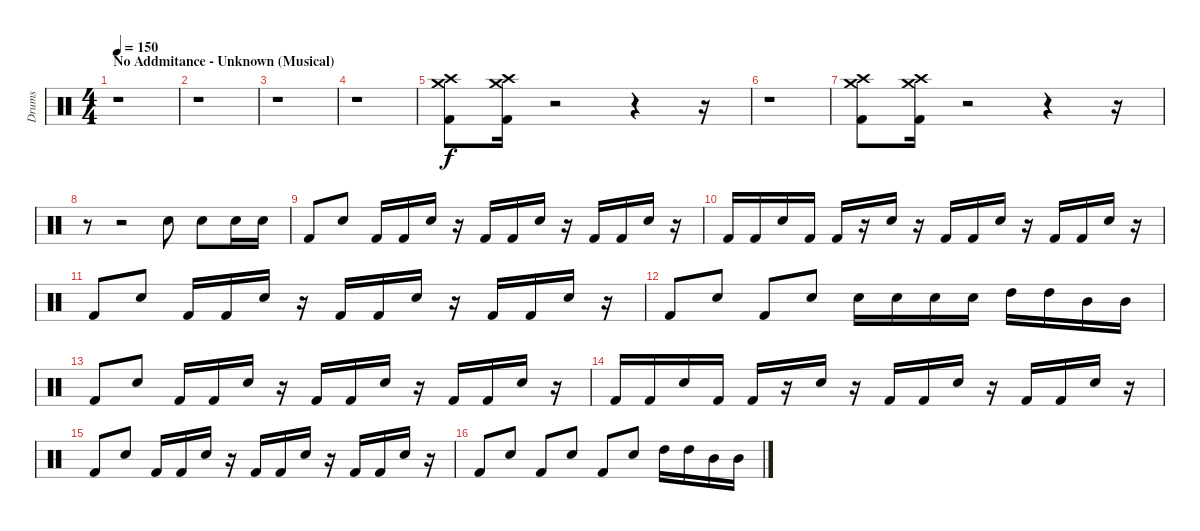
\track ("Drums" "Drums") {instrument percussion}
\staff {score}
\articulation defaults
\ts (4 4)
\section ("" "No Addmitance - Unknown (Musical)")
\tempo 150
\clef neutral
\ks c
r.1{dy f} |
r.1 |
r.1 |
r.1 |
("Crash medium (hit)" "Crash high (hit)" "Kick (hit) 2").8 ("Crash medium (hit)" "Crash high (hit)" "Kick (hit) 2").16 r.2 r.4 r.16 |
r.1 |
("Crash medium (hit)" "Crash high (hit)" "Kick (hit) 2").8 ("Crash medium (hit)" "Crash high (hit)" "Kick (hit) 2").16 r.2 r.4 r.16 |
r.8 r.2 "Snare (hit) 2".8 "Snare (hit) 2".8 "Snare (hit) 2".16 "Snare (hit) 2".16 |
"Kick (hit) 2".8 "Snare (hit) 2".8 "Kick (hit) 2".16 "Kick (hit) 2".16 "Snare (hit) 2".16 r.16 "Kick (hit) 2".16 "Kick (hit) 2".16 "Snare (hit) 2".16 r.16 "Kick (hit) 2".16 "Kick (hit) 2".16 "Snare (hit) 2".16 r.16 |
"Kick (hit) 2".16 "Kick (hit) 2".16 "Snare (hit) 2".16 "Kick (hit) 2".16 "Kick (hit) 2".16 r.16 "Snare (hit) 2".16 r.16 "Kick (hit) 2".16 "Kick (hit) 2".16 "Snare (hit) 2".16 r.16 "Kick (hit) 2".16 "Kick (hit) 2".16 "Snare (hit) 2".16 r.16 |
"Kick (hit) 2".8 "Snare (hit) 2".8 "Kick (hit) 2".16 "Kick (hit) 2".16 "Snare (hit) 2".16 r.16 "Kick (hit) 2".16 "Kick (hit) 2".16 "Snare (hit) 2".16 r.16 "Kick (hit) 2".16 "Kick (hit) 2".16 "Snare (hit) 2".16 r.16 |
"Kick (hit) 2".8 "Snare (hit) 2".8 "Kick (hit) 2".8 "Snare (hit) 2".8 "Snare (hit) 2".16 "Snare (hit) 2".16 "Snare (hit) 2".16 "Snare (hit) 2".16 "High Tom (hit)".16 "High Tom (hit)".16 "Mid Tom (hit)".16 "Mid Tom (hit)".16 |
"Kick (hit) 2".8 "Snare (hit) 2".8 "Kick (hit) 2".16 "Kick (hit) 2".16 "Snare (hit) 2".16 r.16 "Kick (hit) 2".16 "Kick (hit) 2".16 "Snare (hit) 2".16 r.16 "Kick (hit) 2".16 "Kick (hit) 2".16 "Snare (hit) 2".16 r.16 |
"Kick (hit) 2".16 "Kick (hit) 2".16 "Snare (hit) 2".16 "Kick (hit) 2".16 "Kick (hit) 2".16 r.16 "Snare (hit) 2".16 r.16 "Kick (hit) 2".16 "Kick (hit) 2".16 "Snare (hit) 2".16 r.16 "Kick (hit) 2".16 "Kick (hit) 2".16 "Snare (hit) 2".16 r.16 |
"Kick (hit) 2".8 "Snare (hit) 2".8 "Kick (hit) 2".16 "Kick (hit) 2".16 "Snare (hit) 2".16 r.16 "Kick (hit) 2".16 "Kick (hit) 2".16 "Snare (hit) 2".16 r.16 "Kick (hit) 2".16 "Kick (hit) 2".16 "Snare (hit) 2".16 r.16 |
"Kick (hit) 2".8 "Snare (hit) 2".8 "Kick (hit) 2".8 "Snare (hit) 2".8 "Kick (hit) 2".8 "Snare (hit) 2".8 "High Tom (hit)".16 "High Tom (hit)".16 "Mid Tom (hit)".16 "Mid Tom (hit)".16
